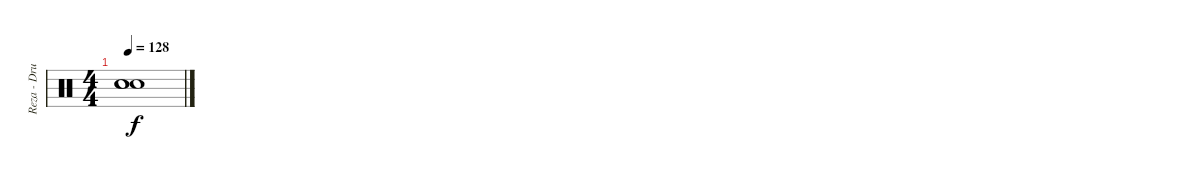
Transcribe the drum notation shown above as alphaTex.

\track ("Reza - Drum" "Reza - Dru") {instrument percussion}
\staff {score}
\articulation defaults
\ts (4 4)
\tempo 128
\clef neutral
\ks c
("Snare (hit)"{t} "Snare (hit)"{t} "Snare (hit)"{t}).1{dy f}
